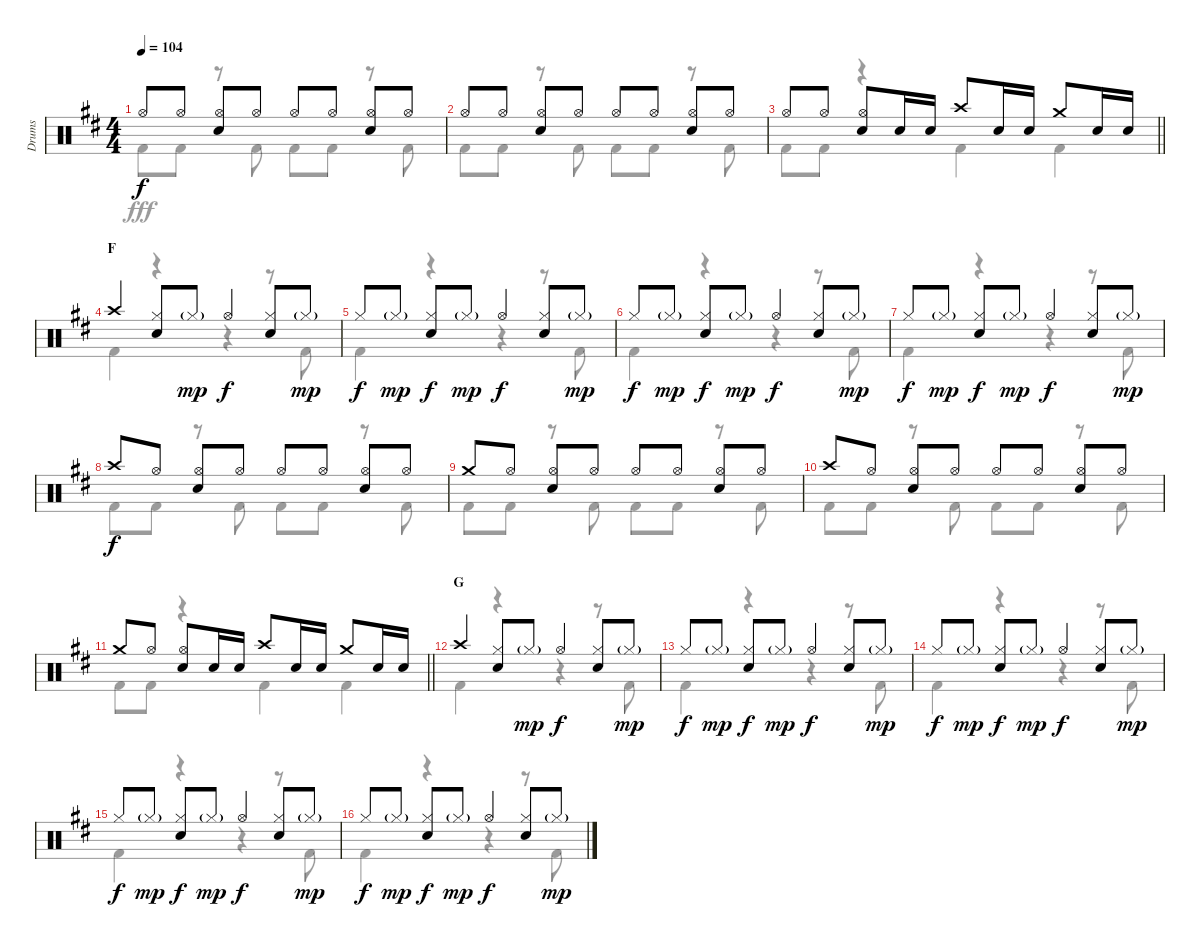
\track ("Drums" "Drums") {instrument percussion}
\staff {score}
\articulation defaults
\voice
\ts (4 4)
\tempo 104
\clef neutral
\ks d "Hi-Hat (open)".8{dy f} "Hi-Hat (open)".8
("Hi-Hat (open)" "Snare (hit) 2").8 "Hi-Hat (open)".8 "Hi-Hat (open)".8 "Hi-Hat (open)".8 ("Hi-Hat (open)" "Snare (hit) 2").8 "Hi-Hat (open)".8 |
"Hi-Hat (open)".8 "Hi-Hat (open)".8 ("Hi-Hat (open)" "Snare (hit) 2").8 "Hi-Hat (open)".8 "Hi-Hat (open)".8 "Hi-Hat (open)".8 ("Hi-Hat (open)" "Snare (hit) 2").8 "Hi-Hat (open)".8 |
\barLineRight lightlight "Hi-Hat (open)".8 "Hi-Hat (open)".8
("Hi-Hat (open)" "Snare (hit) 2").8 "Snare (hit) 2".16 "Snare (hit) 2".16 "Crash high (hit)".8 "Snare (hit) 2".16 "Snare (hit) 2".16 "Crash medium (hit)".8 "Snare (hit) 2".16 "Snare (hit) 2".16 |
\section ("" "F")
"Crash high (hit)".4 ("Hi-Hat (closed)" "Snare (hit) 2").8 "Hi-Hat (closed)"{g}.8{dy mp} "Hi-Hat (open)".4{dy f} ("Hi-Hat (closed)" "Snare (hit) 2").8 "Hi-Hat (closed)"{g}.8{dy mp} |
"Hi-Hat (closed)".8{dy f} "Hi-Hat (closed)"{g}.8{dy mp} ("Hi-Hat (closed)" "Snare (hit) 2").8{dy f} "Hi-Hat (closed)"{g}.8{dy mp} "Hi-Hat (open)".4{dy f} ("Hi-Hat (closed)" "Snare (hit) 2").8 "Hi-Hat (closed)"{g}.8{dy mp} |
"Hi-Hat (closed)".8{dy f} "Hi-Hat (closed)"{g}.8{dy mp} ("Hi-Hat (closed)" "Snare (hit) 2").8{dy f} "Hi-Hat (closed)"{g}.8{dy mp} "Hi-Hat (open)".4{dy f} ("Hi-Hat (closed)" "Snare (hit) 2").8 "Hi-Hat (closed)"{g}.8{dy mp} |
"Hi-Hat (closed)".8{dy f} "Hi-Hat (closed)"{g}.8{dy mp} ("Hi-Hat (closed)" "Snare (hit) 2").8{dy f} "Hi-Hat (closed)"{g}.8{dy mp} "Hi-Hat (open)".4{dy f} ("Hi-Hat (closed)" "Snare (hit) 2").8 "Hi-Hat (closed)"{g}.8{dy mp} |
"Crash high (hit)".8{dy f} "Hi-Hat (open)".8 ("Hi-Hat (open)" "Snare (hit) 2").8 "Hi-Hat (open)".8 "Hi-Hat (open)".8 "Hi-Hat (open)".8 ("Hi-Hat (open)" "Snare (hit) 2").8 "Hi-Hat (open)".8 |
"Crash medium (hit)".8 "Hi-Hat (open)".8 ("Hi-Hat (open)" "Snare (hit) 2").8 "Hi-Hat (open)".8 "Hi-Hat (open)".8 "Hi-Hat (open)".8 ("Hi-Hat (open)" "Snare (hit) 2").8 "Hi-Hat (open)".8 |
"Crash high (hit)".8 "Hi-Hat (open)".8 ("Hi-Hat (open)" "Snare (hit) 2").8 "Hi-Hat (open)".8 "Hi-Hat (open)".8 "Hi-Hat (open)".8 ("Hi-Hat (open)" "Snare (hit) 2").8 "Hi-Hat (open)".8 |
\barLineRight lightlight "Crash medium (hit)".8 "Hi-Hat (open)".8
("Hi-Hat (open)" "Snare (hit) 2").8 "Snare (hit) 2".16 "Snare (hit) 2".16 "Crash high (hit)".8 "Snare (hit) 2".16 "Snare (hit) 2".16 "Crash medium (hit)".8 "Snare (hit) 2".16 "Snare (hit) 2".16 |
\section ("" "G")
"Crash high (hit)".4 ("Hi-Hat (closed)" "Snare (hit) 2").8 "Hi-Hat (closed)"{g}.8{dy mp} "Hi-Hat (open)".4{dy f} ("Hi-Hat (closed)" "Snare (hit) 2").8 "Hi-Hat (closed)"{g}.8{dy mp} |
"Hi-Hat (closed)".8{dy f} "Hi-Hat (closed)"{g}.8{dy mp} ("Hi-Hat (closed)" "Snare (hit) 2").8{dy f} "Hi-Hat (closed)"{g}.8{dy mp} "Hi-Hat (open)".4{dy f} ("Hi-Hat (closed)" "Snare (hit) 2").8 "Hi-Hat (closed)"{g}.8{dy mp} |
"Hi-Hat (closed)".8{dy f} "Hi-Hat (closed)"{g}.8{dy mp} ("Hi-Hat (closed)" "Snare (hit) 2").8{dy f} "Hi-Hat (closed)"{g}.8{dy mp} "Hi-Hat (open)".4{dy f} ("Hi-Hat (closed)" "Snare (hit) 2").8 "Hi-Hat (closed)"{g}.8{dy mp} |
"Hi-Hat (closed)".8{dy f} "Hi-Hat (closed)"{g}.8{dy mp} ("Hi-Hat (closed)" "Snare (hit) 2").8{dy f} "Hi-Hat (closed)"{g}.8{dy mp} "Hi-Hat (open)".4{dy f} ("Hi-Hat (closed)" "Snare (hit) 2").8 "Hi-Hat (closed)"{g}.8{dy mp} |
"Hi-Hat (closed)".8{dy f} "Hi-Hat (closed)"{g}.8{dy mp} ("Hi-Hat (closed)" "Snare (hit) 2").8{dy f} "Hi-Hat (closed)"{g}.8{dy mp} "Hi-Hat (open)".4{dy f} ("Hi-Hat (closed)" "Snare (hit) 2").8 "Hi-Hat (closed)"{g}.8{dy mp}
\voice
\clef neutral
\ottava regular
\simile none
\ks d "Kick (hit) 2".8{dy fff} "Kick (hit) 2".8
r.8 "Kick (hit) 2".8 "Kick (hit) 2".8 "Kick (hit) 2".8 r.8 "Kick (hit) 2".8 |
"Kick (hit) 2".8 "Kick (hit) 2".8 r.8 "Kick (hit) 2".8 "Kick (hit) 2".8 "Kick (hit) 2".8 r.8 "Kick (hit) 2".8 |
\barLineRight lightlight "Kick (hit) 2".8 "Kick (hit) 2".8
r.4 "Kick (hit) 2".4 "Kick (hit) 2".4 |
"Kick (hit) 2".4 r.4 r.4 r.8 "Kick (hit) 2".8 |
"Kick (hit) 2".4 r.4 r.4 r.8 "Kick (hit) 2".8 |
"Kick (hit) 2".4 r.4 r.4 r.8 "Kick (hit) 2".8 |
"Kick (hit) 2".4 r.4 r.4 r.8 "Kick (hit) 2".8 |
"Kick (hit) 2".8 "Kick (hit) 2".8 r.8 "Kick (hit) 2".8 "Kick (hit) 2".8 "Kick (hit) 2".8 r.8 "Kick (hit) 2".8 |
"Kick (hit) 2".8 "Kick (hit) 2".8 r.8 "Kick (hit) 2".8 "Kick (hit) 2".8 "Kick (hit) 2".8 r.8 "Kick (hit) 2".8 |
"Kick (hit) 2".8 "Kick (hit) 2".8 r.8 "Kick (hit) 2".8 "Kick (hit) 2".8 "Kick (hit) 2".8 r.8 "Kick (hit) 2".8 |
\barLineRight lightlight "Kick (hit) 2".8 "Kick (hit) 2".8
r.4 "Kick (hit) 2".4 "Kick (hit) 2".4 |
"Kick (hit) 2".4 r.4 r.4 r.8 "Kick (hit) 2".8 |
"Kick (hit) 2".4 r.4 r.4 r.8 "Kick (hit) 2".8 |
"Kick (hit) 2".4 r.4 r.4 r.8 "Kick (hit) 2".8 |
"Kick (hit) 2".4 r.4 r.4 r.8 "Kick (hit) 2".8 |
"Kick (hit) 2".4 r.4 r.4 r.8 "Kick (hit) 2".8
